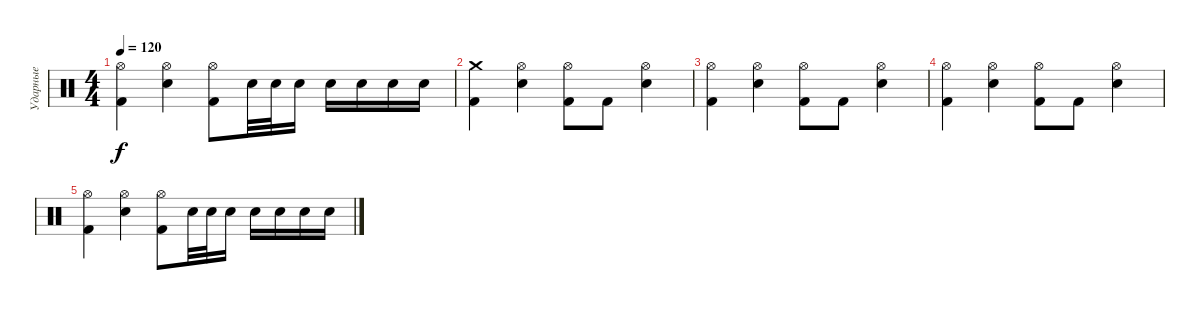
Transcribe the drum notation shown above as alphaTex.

\track ("Ударные" "Ударные") {instrument percussion}
\staff {score}
\articulation defaults
\ts (4 4)
\tempo 120
\clef neutral
\ks c
("Kick (hit) 2" "Hi-Hat (open)").4{dy f} ("Electric Snare (hit)" "Hi-Hat (open)").4 ("Kick (hit) 2" "Hi-Hat (open)").8 "Electric Snare (hit)".32 "Electric Snare (hit)".32 "Electric Snare (hit)".16 "Electric Snare (hit)".16 "Electric Snare (hit)".16 "Electric Snare (hit)".16 "Electric Snare (hit)".16 |
("Kick (hit) 2" "Crash medium (hit)").4{volume 0} ("Electric Snare (hit)" "Hi-Hat (open)").4 ("Kick (hit) 2" "Hi-Hat (open)").8 "Kick (hit) 2".8 ("Electric Snare (hit)" "Hi-Hat (open)").4 |
("Kick (hit) 2" "Hi-Hat (open)").4 ("Electric Snare (hit)" "Hi-Hat (open)").4 ("Kick (hit) 2" "Hi-Hat (open)").8 "Kick (hit) 2".8 ("Electric Snare (hit)" "Hi-Hat (open)").4 |
("Kick (hit) 2" "Hi-Hat (open)").4 ("Electric Snare (hit)" "Hi-Hat (open)").4 ("Kick (hit) 2" "Hi-Hat (open)").8 "Kick (hit) 2".8 ("Electric Snare (hit)" "Hi-Hat (open)").4 |
("Kick (hit) 2" "Hi-Hat (open)").4 ("Electric Snare (hit)" "Hi-Hat (open)").4 ("Kick (hit) 2" "Hi-Hat (open)").8 "Electric Snare (hit)".32 "Electric Snare (hit)".32 "Electric Snare (hit)".16 "Electric Snare (hit)".16 "Electric Snare (hit)".16 "Electric Snare (hit)".16 "Electric Snare (hit)".16
